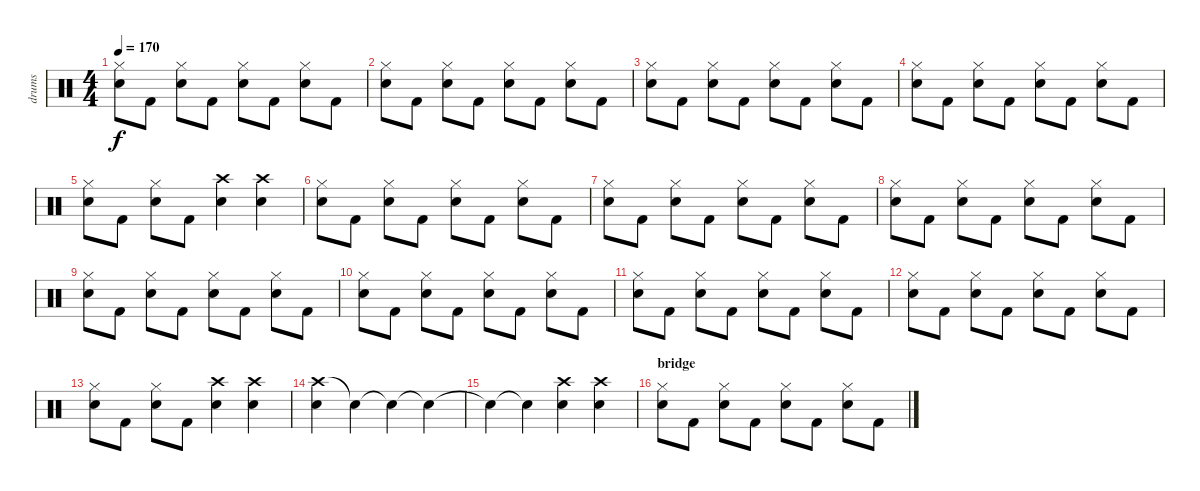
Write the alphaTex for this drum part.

\track ("drums" "drums") {instrument percussion}
\staff {score}
\articulation defaults
\ts (4 4)
\tempo 170
\clef neutral
\ks c
("Hi-Hat (closed)" "Snare (hit) 2").8{dy f} "Kick (hit) 2".8 ("Hi-Hat (closed)" "Snare (hit) 2").8 "Kick (hit) 2".8 ("Hi-Hat (closed)" "Snare (hit) 2").8 "Kick (hit) 2".8 ("Hi-Hat (closed)" "Snare (hit) 2").8 "Kick (hit) 2".8 |
("Hi-Hat (closed)" "Snare (hit) 2").8 "Kick (hit) 2".8 ("Hi-Hat (closed)" "Snare (hit) 2").8 "Kick (hit) 2".8 ("Hi-Hat (closed)" "Snare (hit) 2").8 "Kick (hit) 2".8 ("Hi-Hat (closed)" "Snare (hit) 2").8 "Kick (hit) 2".8 |
("Hi-Hat (closed)" "Snare (hit) 2").8 "Kick (hit) 2".8 ("Hi-Hat (closed)" "Snare (hit) 2").8 "Kick (hit) 2".8 ("Hi-Hat (closed)" "Snare (hit) 2").8 "Kick (hit) 2".8 ("Hi-Hat (closed)" "Snare (hit) 2").8 "Kick (hit) 2".8 |
("Hi-Hat (closed)" "Snare (hit) 2").8 "Kick (hit) 2".8 ("Hi-Hat (closed)" "Snare (hit) 2").8 "Kick (hit) 2".8 ("Hi-Hat (closed)" "Snare (hit) 2").8 "Kick (hit) 2".8 ("Hi-Hat (closed)" "Snare (hit) 2").8 "Kick (hit) 2".8 |
("Hi-Hat (closed)" "Snare (hit) 2").8 "Kick (hit) 2".8 ("Hi-Hat (closed)" "Snare (hit) 2").8 "Kick (hit) 2".8 ("Crash high (hit)" "Snare (hit) 2").4 ("Crash high (hit)" "Snare (hit) 2").4 |
("Hi-Hat (closed)" "Snare (hit) 2").8 "Kick (hit) 2".8 ("Hi-Hat (closed)" "Snare (hit) 2").8 "Kick (hit) 2".8 ("Hi-Hat (closed)" "Snare (hit) 2").8 "Kick (hit) 2".8 ("Hi-Hat (closed)" "Snare (hit) 2").8 "Kick (hit) 2".8 |
("Hi-Hat (closed)" "Snare (hit) 2").8 "Kick (hit) 2".8 ("Hi-Hat (closed)" "Snare (hit) 2").8 "Kick (hit) 2".8 ("Hi-Hat (closed)" "Snare (hit) 2").8 "Kick (hit) 2".8 ("Hi-Hat (closed)" "Snare (hit) 2").8 "Kick (hit) 2".8 |
("Hi-Hat (closed)" "Snare (hit) 2").8 "Kick (hit) 2".8 ("Hi-Hat (closed)" "Snare (hit) 2").8 "Kick (hit) 2".8 ("Hi-Hat (closed)" "Snare (hit) 2").8 "Kick (hit) 2".8 ("Hi-Hat (closed)" "Snare (hit) 2").8 "Kick (hit) 2".8 |
("Hi-Hat (closed)" "Snare (hit) 2").8 "Kick (hit) 2".8 ("Hi-Hat (closed)" "Snare (hit) 2").8 "Kick (hit) 2".8 ("Hi-Hat (closed)" "Snare (hit) 2").8 "Kick (hit) 2".8 ("Hi-Hat (closed)" "Snare (hit) 2").8 "Kick (hit) 2".8 |
("Hi-Hat (closed)" "Snare (hit) 2").8 "Kick (hit) 2".8 ("Hi-Hat (closed)" "Snare (hit) 2").8 "Kick (hit) 2".8 ("Hi-Hat (closed)" "Snare (hit) 2").8 "Kick (hit) 2".8 ("Hi-Hat (closed)" "Snare (hit) 2").8 "Kick (hit) 2".8 |
("Hi-Hat (closed)" "Snare (hit) 2").8 "Kick (hit) 2".8 ("Hi-Hat (closed)" "Snare (hit) 2").8 "Kick (hit) 2".8 ("Hi-Hat (closed)" "Snare (hit) 2").8 "Kick (hit) 2".8 ("Hi-Hat (closed)" "Snare (hit) 2").8 "Kick (hit) 2".8 |
("Hi-Hat (closed)" "Snare (hit) 2").8 "Kick (hit) 2".8 ("Hi-Hat (closed)" "Snare (hit) 2").8 "Kick (hit) 2".8 ("Hi-Hat (closed)" "Snare (hit) 2").8 "Kick (hit) 2".8 ("Hi-Hat (closed)" "Snare (hit) 2").8 "Kick (hit) 2".8 |
("Hi-Hat (closed)" "Snare (hit) 2").8 "Kick (hit) 2".8 ("Hi-Hat (closed)" "Snare (hit) 2").8 "Kick (hit) 2".8 ("Crash high (hit)" "Snare (hit) 2").4 ("Crash high (hit)" "Snare (hit) 2").4 |
("Crash high (hit)" "Snare (hit) 2").4 "Snare (hit)"{t}.4 "Snare (hit)"{t}.4 "Snare (hit)"{t}.4 |
"Snare (hit)"{t}.4 "Snare (hit)"{t}.4 ("Crash high (hit)" "Snare (hit) 2").4 ("Crash high (hit)" "Snare (hit) 2").4 |
\section ("" "bridge")
("Hi-Hat (closed)" "Snare (hit) 2").8 "Kick (hit) 2".8 ("Hi-Hat (closed)" "Snare (hit) 2").8 "Kick (hit) 2".8 ("Hi-Hat (closed)" "Snare (hit) 2").8 "Kick (hit) 2".8 ("Hi-Hat (closed)" "Snare (hit) 2").8 "Kick (hit) 2".8
